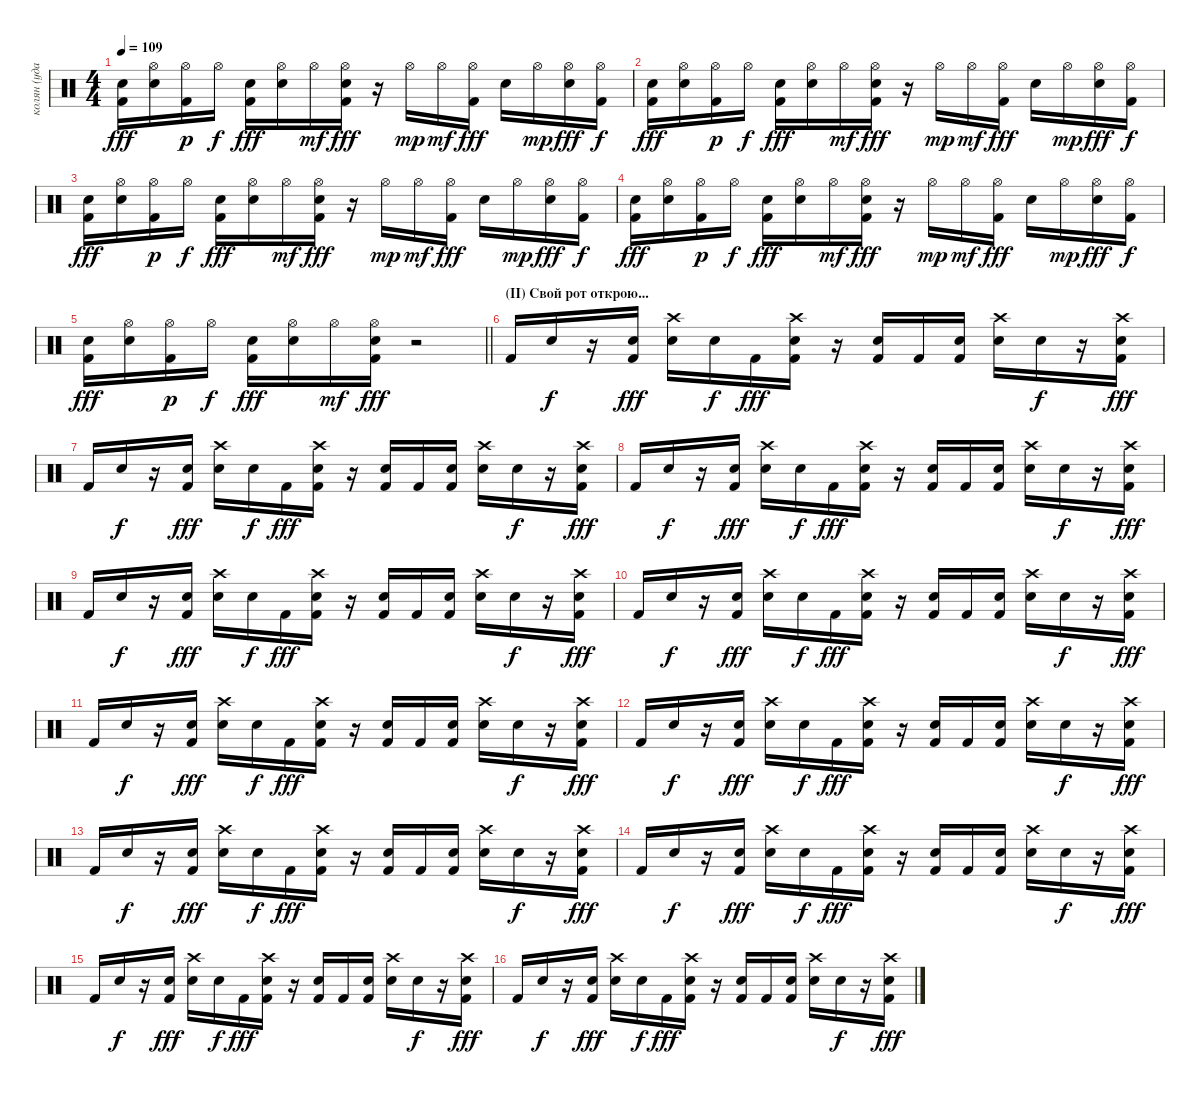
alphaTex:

\track ("колян (ударные)" "колян (уда") {instrument percussion}
\staff
\articulation defaults
\ts (4 4)
\tempo 109
\clef neutral
\ks c
("Snare (hit) 2" "Kick (hit) 2").16{dy fff} ("Hi-Hat (open)" "Snare (hit) 2").16 ("Hi-Hat (open)" "Kick (hit) 2").16{dy p} "Hi-Hat (open)".16{dy f} ("Snare (hit) 2" "Kick (hit) 2").16{dy fff} ("Hi-Hat (open)" "Snare (hit) 2").16 "Hi-Hat (open)".16{dy mf} ("Hi-Hat (open)" "Snare (hit) 2" "Kick (hit) 2").16{dy fff} r.16 "Hi-Hat (open)".16{dy mp} "Hi-Hat (open)".16{dy mf} ("Hi-Hat (open)" "Kick (hit) 2").16{dy fff} "Snare (hit) 2".16 "Hi-Hat (open)".16{dy mp} ("Hi-Hat (open)" "Snare (hit) 2").16{dy fff} ("Hi-Hat (open)" "Kick (hit) 2").16{dy f} |
("Snare (hit) 2" "Kick (hit) 2").16{dy fff} ("Hi-Hat (open)" "Snare (hit) 2").16 ("Hi-Hat (open)" "Kick (hit) 2").16{dy p} "Hi-Hat (open)".16{dy f} ("Snare (hit) 2" "Kick (hit) 2").16{dy fff} ("Hi-Hat (open)" "Snare (hit) 2").16 "Hi-Hat (open)".16{dy mf} ("Hi-Hat (open)" "Snare (hit) 2" "Kick (hit) 2").16{dy fff} r.16 "Hi-Hat (open)".16{dy mp} "Hi-Hat (open)".16{dy mf} ("Hi-Hat (open)" "Kick (hit) 2").16{dy fff} "Snare (hit) 2".16 "Hi-Hat (open)".16{dy mp} ("Hi-Hat (open)" "Snare (hit) 2").16{dy fff} ("Hi-Hat (open)" "Kick (hit) 2").16{dy f} |
("Snare (hit) 2" "Kick (hit) 2").16{dy fff} ("Hi-Hat (open)" "Snare (hit) 2").16 ("Hi-Hat (open)" "Kick (hit) 2").16{dy p} "Hi-Hat (open)".16{dy f} ("Snare (hit) 2" "Kick (hit) 2").16{dy fff} ("Hi-Hat (open)" "Snare (hit) 2").16 "Hi-Hat (open)".16{dy mf} ("Hi-Hat (open)" "Snare (hit) 2" "Kick (hit) 2").16{dy fff} r.16 "Hi-Hat (open)".16{dy mp} "Hi-Hat (open)".16{dy mf} ("Hi-Hat (open)" "Kick (hit) 2").16{dy fff} "Snare (hit) 2".16 "Hi-Hat (open)".16{dy mp} ("Hi-Hat (open)" "Snare (hit) 2").16{dy fff} ("Hi-Hat (open)" "Kick (hit) 2").16{dy f} |
("Snare (hit) 2" "Kick (hit) 2").16{dy fff} ("Hi-Hat (open)" "Snare (hit) 2").16 ("Hi-Hat (open)" "Kick (hit) 2").16{dy p} "Hi-Hat (open)".16{dy f} ("Snare (hit) 2" "Kick (hit) 2").16{dy fff} ("Hi-Hat (open)" "Snare (hit) 2").16 "Hi-Hat (open)".16{dy mf} ("Hi-Hat (open)" "Snare (hit) 2" "Kick (hit) 2").16{dy fff} r.16 "Hi-Hat (open)".16{dy mp} "Hi-Hat (open)".16{dy mf} ("Hi-Hat (open)" "Kick (hit) 2").16{dy fff} "Snare (hit) 2".16 "Hi-Hat (open)".16{dy mp} ("Hi-Hat (open)" "Snare (hit) 2").16{dy fff} ("Hi-Hat (open)" "Kick (hit) 2").16{dy f} |
\barLineRight lightlight
("Snare (hit) 2" "Kick (hit) 2").16{dy fff} ("Hi-Hat (open)" "Snare (hit) 2").16 ("Hi-Hat (open)" "Kick (hit) 2").16{dy p} "Hi-Hat (open)".16{dy f} ("Snare (hit) 2" "Kick (hit) 2").16{dy fff} ("Hi-Hat (open)" "Snare (hit) 2").16 "Hi-Hat (open)".16{dy mf} ("Hi-Hat (open)" "Snare (hit) 2" "Kick (hit) 2").16{dy fff} r.2 |
\section ("" "(II) Свой рот открою...")
"Kick (hit) 2".16 "Snare (hit) 2".16{dy f} r.16 ("Snare (hit) 2" "Kick (hit) 2").16{dy fff} ("Crash high (hit)" "Snare (hit) 2").16 "Snare (hit) 2".16{dy f} "Kick (hit) 2".16{dy fff} ("Crash high (hit)" "Snare (hit) 2" "Kick (hit) 2").16 r.16 ("Snare (hit) 2" "Kick (hit) 2").16 "Kick (hit) 2".16 ("Snare (hit) 2" "Kick (hit) 2").16 ("Crash high (hit)" "Snare (hit) 2").16 "Snare (hit) 2".16{dy f} r.16 ("Crash high (hit)" "Snare (hit) 2" "Kick (hit) 2").16{dy fff} |
"Kick (hit) 2".16 "Snare (hit) 2".16{dy f} r.16 ("Snare (hit) 2" "Kick (hit) 2").16{dy fff} ("Crash high (hit)" "Snare (hit) 2").16 "Snare (hit) 2".16{dy f} "Kick (hit) 2".16{dy fff} ("Crash high (hit)" "Snare (hit) 2" "Kick (hit) 2").16 r.16 ("Snare (hit) 2" "Kick (hit) 2").16 "Kick (hit) 2".16 ("Snare (hit) 2" "Kick (hit) 2").16 ("Crash high (hit)" "Snare (hit) 2").16 "Snare (hit) 2".16{dy f} r.16 ("Crash high (hit)" "Snare (hit) 2" "Kick (hit) 2").16{dy fff} |
"Kick (hit) 2".16 "Snare (hit) 2".16{dy f} r.16 ("Snare (hit) 2" "Kick (hit) 2").16{dy fff} ("Crash high (hit)" "Snare (hit) 2").16 "Snare (hit) 2".16{dy f} "Kick (hit) 2".16{dy fff} ("Crash high (hit)" "Snare (hit) 2" "Kick (hit) 2").16 r.16 ("Snare (hit) 2" "Kick (hit) 2").16 "Kick (hit) 2".16 ("Snare (hit) 2" "Kick (hit) 2").16 ("Crash high (hit)" "Snare (hit) 2").16 "Snare (hit) 2".16{dy f} r.16 ("Crash high (hit)" "Snare (hit) 2" "Kick (hit) 2").16{dy fff} |
"Kick (hit) 2".16 "Snare (hit) 2".16{dy f} r.16 ("Snare (hit) 2" "Kick (hit) 2").16{dy fff} ("Crash high (hit)" "Snare (hit) 2").16 "Snare (hit) 2".16{dy f} "Kick (hit) 2".16{dy fff} ("Crash high (hit)" "Snare (hit) 2" "Kick (hit) 2").16 r.16 ("Snare (hit) 2" "Kick (hit) 2").16 "Kick (hit) 2".16 ("Snare (hit) 2" "Kick (hit) 2").16 ("Crash high (hit)" "Snare (hit) 2").16 "Snare (hit) 2".16{dy f} r.16 ("Crash high (hit)" "Snare (hit) 2" "Kick (hit) 2").16{dy fff} |
"Kick (hit) 2".16 "Snare (hit) 2".16{dy f} r.16 ("Snare (hit) 2" "Kick (hit) 2").16{dy fff} ("Crash high (hit)" "Snare (hit) 2").16 "Snare (hit) 2".16{dy f} "Kick (hit) 2".16{dy fff} ("Crash high (hit)" "Snare (hit) 2" "Kick (hit) 2").16 r.16 ("Snare (hit) 2" "Kick (hit) 2").16 "Kick (hit) 2".16 ("Snare (hit) 2" "Kick (hit) 2").16 ("Crash high (hit)" "Snare (hit) 2").16 "Snare (hit) 2".16{dy f} r.16 ("Crash high (hit)" "Snare (hit) 2" "Kick (hit) 2").16{dy fff} |
"Kick (hit) 2".16 "Snare (hit) 2".16{dy f} r.16 ("Snare (hit) 2" "Kick (hit) 2").16{dy fff} ("Crash high (hit)" "Snare (hit) 2").16 "Snare (hit) 2".16{dy f} "Kick (hit) 2".16{dy fff} ("Crash high (hit)" "Snare (hit) 2" "Kick (hit) 2").16 r.16 ("Snare (hit) 2" "Kick (hit) 2").16 "Kick (hit) 2".16 ("Snare (hit) 2" "Kick (hit) 2").16 ("Crash high (hit)" "Snare (hit) 2").16 "Snare (hit) 2".16{dy f} r.16 ("Crash high (hit)" "Snare (hit) 2" "Kick (hit) 2").16{dy fff} |
"Kick (hit) 2".16 "Snare (hit) 2".16{dy f} r.16 ("Snare (hit) 2" "Kick (hit) 2").16{dy fff} ("Crash high (hit)" "Snare (hit) 2").16 "Snare (hit) 2".16{dy f} "Kick (hit) 2".16{dy fff} ("Crash high (hit)" "Snare (hit) 2" "Kick (hit) 2").16 r.16 ("Snare (hit) 2" "Kick (hit) 2").16 "Kick (hit) 2".16 ("Snare (hit) 2" "Kick (hit) 2").16 ("Crash high (hit)" "Snare (hit) 2").16 "Snare (hit) 2".16{dy f} r.16 ("Crash high (hit)" "Snare (hit) 2" "Kick (hit) 2").16{dy fff} |
"Kick (hit) 2".16 "Snare (hit) 2".16{dy f} r.16 ("Snare (hit) 2" "Kick (hit) 2").16{dy fff} ("Crash high (hit)" "Snare (hit) 2").16 "Snare (hit) 2".16{dy f} "Kick (hit) 2".16{dy fff} ("Crash high (hit)" "Snare (hit) 2" "Kick (hit) 2").16 r.16 ("Snare (hit) 2" "Kick (hit) 2").16 "Kick (hit) 2".16 ("Snare (hit) 2" "Kick (hit) 2").16 ("Crash high (hit)" "Snare (hit) 2").16 "Snare (hit) 2".16{dy f} r.16 ("Crash high (hit)" "Snare (hit) 2" "Kick (hit) 2").16{dy fff} |
"Kick (hit) 2".16 "Snare (hit) 2".16{dy f} r.16 ("Snare (hit) 2" "Kick (hit) 2").16{dy fff} ("Crash high (hit)" "Snare (hit) 2").16 "Snare (hit) 2".16{dy f} "Kick (hit) 2".16{dy fff} ("Crash high (hit)" "Snare (hit) 2" "Kick (hit) 2").16 r.16 ("Snare (hit) 2" "Kick (hit) 2").16 "Kick (hit) 2".16 ("Snare (hit) 2" "Kick (hit) 2").16 ("Crash high (hit)" "Snare (hit) 2").16 "Snare (hit) 2".16{dy f} r.16 ("Crash high (hit)" "Snare (hit) 2" "Kick (hit) 2").16{dy fff} |
"Kick (hit) 2".16 "Snare (hit) 2".16{dy f} r.16 ("Snare (hit) 2" "Kick (hit) 2").16{dy fff} ("Crash high (hit)" "Snare (hit) 2").16 "Snare (hit) 2".16{dy f} "Kick (hit) 2".16{dy fff} ("Crash high (hit)" "Snare (hit) 2" "Kick (hit) 2").16 r.16 ("Snare (hit) 2" "Kick (hit) 2").16 "Kick (hit) 2".16 ("Snare (hit) 2" "Kick (hit) 2").16 ("Crash high (hit)" "Snare (hit) 2").16 "Snare (hit) 2".16{dy f} r.16 ("Crash high (hit)" "Snare (hit) 2" "Kick (hit) 2").16{dy fff} |
"Kick (hit) 2".16 "Snare (hit) 2".16{dy f} r.16 ("Snare (hit) 2" "Kick (hit) 2").16{dy fff} ("Crash high (hit)" "Snare (hit) 2").16 "Snare (hit) 2".16{dy f} "Kick (hit) 2".16{dy fff} ("Crash high (hit)" "Snare (hit) 2" "Kick (hit) 2").16 r.16 ("Snare (hit) 2" "Kick (hit) 2").16 "Kick (hit) 2".16 ("Snare (hit) 2" "Kick (hit) 2").16 ("Crash high (hit)" "Snare (hit) 2").16 "Snare (hit) 2".16{dy f} r.16 ("Crash high (hit)" "Snare (hit) 2" "Kick (hit) 2").16{dy fff}
